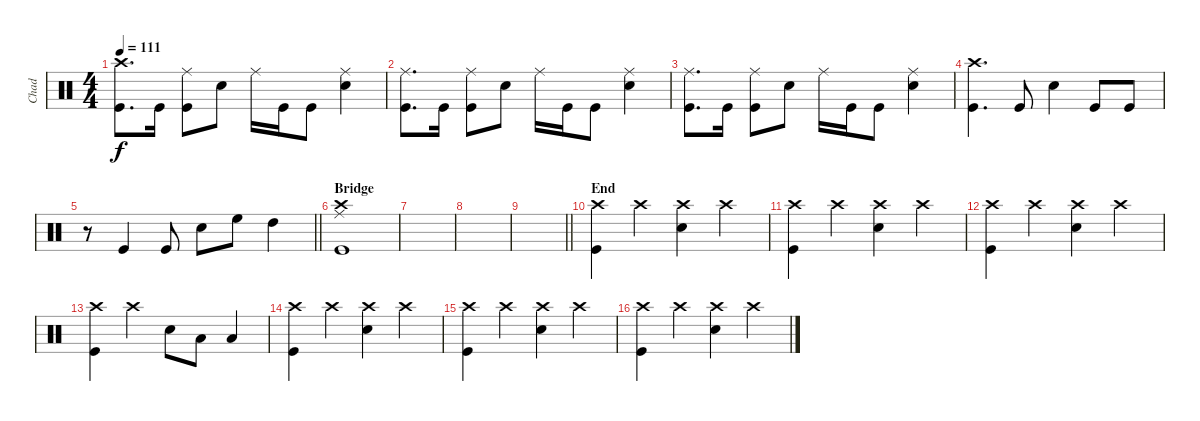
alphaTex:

\track ("Chad" "Chad") {instrument percussion}
\staff {score}
\articulation defaults
\ts (4 4)
\tempo 111
\clef neutral
\ks c
("Kick (hit)" "Crash high (hit)").8{d dy f} "Kick (hit)".16 ("Kick (hit)" "Ride (middle)").8 "Snare (hit) 2".8 "Ride (middle)".16 "Kick (hit)".16 "Kick (hit)".8 ("Snare (hit) 2" "Ride (middle)").4 |
("Kick (hit)" "Ride (middle)").8{d} "Kick (hit)".16 ("Kick (hit)" "Ride (middle)").8 "Snare (hit) 2".8 "Ride (middle)".16 "Kick (hit)".16 "Kick (hit)".8 ("Snare (hit) 2" "Ride (middle)").4 |
("Kick (hit)" "Ride (middle)").8{d} "Kick (hit)".16 ("Kick (hit)" "Ride (middle)").8 "Snare (hit) 2".8 "Ride (middle)".16 "Kick (hit)".16 "Kick (hit)".8 ("Snare (hit) 2" "Ride (middle)").4 |
("Kick (hit)" "Crash high (hit)").4{d} "Kick (hit)".8 "Snare (hit) 2".4 "Kick (hit)".8 "Kick (hit)".8 |
\barLineRight lightlight
r.8 "Kick (hit)".4 "Kick (hit)".8 "Snare (hit) 2".8 "High Floor Tom (hit)".8 "High Tom (hit)".4 |
\section ("" "Bridge")
("Crash high (hit)" "Ride (middle)" "Kick (hit)").1 |
|
|
\barLineRight lightlight
|
\section ("" "End")
("Kick (hit)" "Crash high (hit)").4 "Crash high (hit)".4 ("Snare (hit) 2" "Crash high (hit)").4 "Crash high (hit)".4 |
("Kick (hit)" "Crash high (hit)").4 "Crash high (hit)".4 ("Snare (hit) 2" "Crash high (hit)").4 "Crash high (hit)".4 |
("Kick (hit)" "Crash high (hit)").4 "Crash high (hit)".4 ("Snare (hit) 2" "Crash high (hit)").4 "Crash high (hit)".4 |
("Kick (hit)" "Crash high (hit)").4 "Crash high (hit)".4 "Snare (hit) 2".8 "Low Tom (hit)".8 "Low Floor Tom (hit)".4 |
("Kick (hit)" "Crash high (hit)").4 "Crash high (hit)".4 ("Snare (hit) 2" "Crash high (hit)").4 "Crash high (hit)".4 |
("Kick (hit)" "Crash high (hit)").4 "Crash high (hit)".4 ("Snare (hit) 2" "Crash high (hit)").4 "Crash high (hit)".4 |
("Kick (hit)" "Crash high (hit)").4 "Crash high (hit)".4 ("Snare (hit) 2" "Crash high (hit)").4 "Crash high (hit)".4
